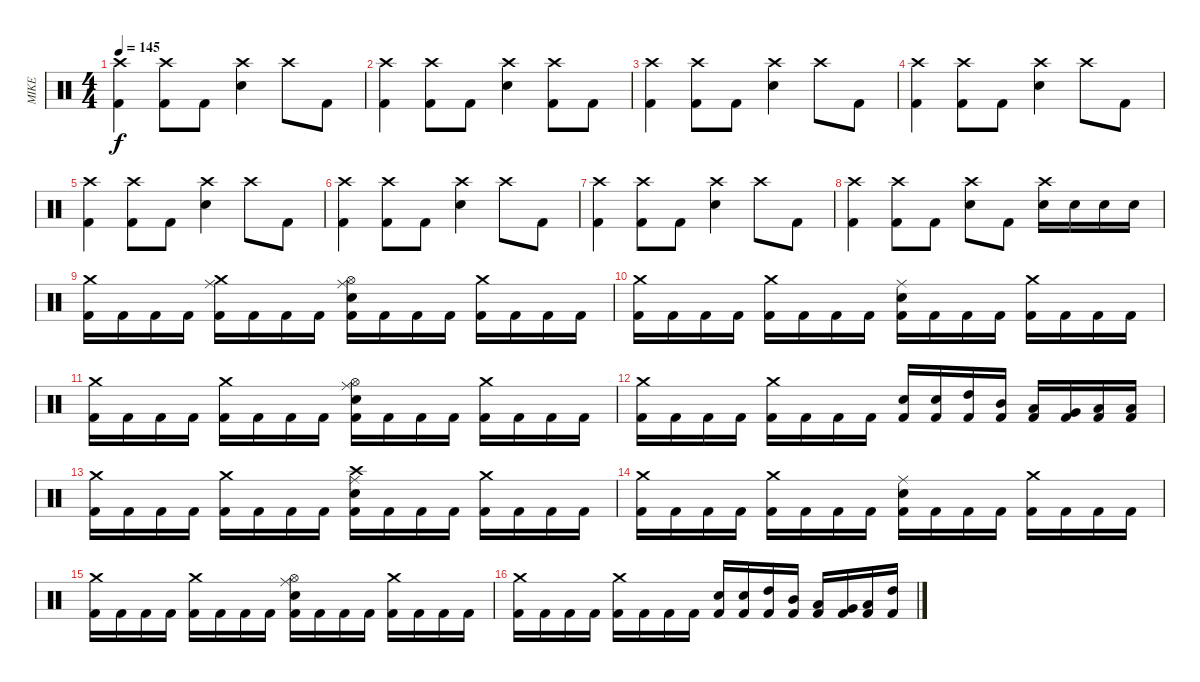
\track ("MIKE" "MIKE") {instrument percussion}
\staff {score}
\articulation defaults
\ts (4 4)
\tempo 145
\clef neutral
\ks c
("Crash high (hit)" "Kick (hit) 2").4{dy f} ("Crash high (hit)" "Kick (hit) 2").8 "Kick (hit) 2".8 ("Crash high (hit)" "Electric Snare (hit)").4 "Crash high (hit)".8 "Kick (hit) 2".8 |
("Crash high (hit)" "Kick (hit) 2").4 ("Crash high (hit)" "Kick (hit) 2").8 "Kick (hit) 2".8 ("Crash high (hit)" "Electric Snare (hit)").4 ("Crash high (hit)" "Kick (hit) 2").8 "Kick (hit) 2".8 |
("Crash high (hit)" "Kick (hit) 2").4 ("Crash high (hit)" "Kick (hit) 2").8 "Kick (hit) 2".8 ("Crash high (hit)" "Electric Snare (hit)").4 "Crash high (hit)".8 "Kick (hit) 2".8 |
("Crash high (hit)" "Kick (hit) 2").4 ("Crash high (hit)" "Kick (hit) 2").8 "Kick (hit) 2".8 ("Crash high (hit)" "Electric Snare (hit)").4 "Crash high (hit)".8 "Kick (hit) 2".8 |
("Crash high (hit)" "Kick (hit) 2").4 ("Crash high (hit)" "Kick (hit) 2").8 "Kick (hit) 2".8 ("Crash high (hit)" "Electric Snare (hit)").4 "Crash high (hit)".8 "Kick (hit) 2".8 |
("Crash high (hit)" "Kick (hit) 2").4 ("Crash high (hit)" "Kick (hit) 2").8 "Kick (hit) 2".8 ("Crash high (hit)" "Electric Snare (hit)").4 "Crash high (hit)".8 "Kick (hit) 2".8 |
("Crash high (hit)" "Kick (hit) 2").4 ("Crash high (hit)" "Kick (hit) 2").8 "Kick (hit) 2".8 ("Crash high (hit)" "Electric Snare (hit)").4 "Crash high (hit)".8 "Kick (hit) 2".8 |
("Crash high (hit)" "Kick (hit) 2").4 ("Crash high (hit)" "Kick (hit) 2").8 "Kick (hit) 2".8 ("Crash high (hit)" "Electric Snare (hit)").8 "Kick (hit) 2".8 ("Crash high (hit)" "Electric Snare (hit)").16 "Electric Snare (hit)".16 "Electric Snare (hit)".16 "Electric Snare (hit)".16 |
("Crash medium (hit)" "Kick (hit) 2").16 "Kick (hit) 2".16 "Kick (hit) 2".16 "Kick (hit) 2".16 ("Ride (middle)" "Crash medium (hit)" "Kick (hit) 2").16 "Kick (hit) 2".16 "Kick (hit) 2".16 "Kick (hit) 2".16 ("Hi-Hat (open)" "Ride (middle)" "Electric Snare (hit)" "Kick (hit) 2").16 "Kick (hit) 2".16 "Kick (hit) 2".16 "Kick (hit) 2".16 ("Crash medium (hit)" "Kick (hit) 2").16 "Kick (hit) 2".16 "Kick (hit) 2".16 "Kick (hit) 2".16 |
("Crash medium (hit)" "Kick (hit) 2").16 "Kick (hit) 2".16 "Kick (hit) 2".16 "Kick (hit) 2".16 ("Crash medium (hit)" "Kick (hit) 2").16 "Kick (hit) 2".16 "Kick (hit) 2".16 "Kick (hit) 2".16 ("Ride (middle)" "Electric Snare (hit)" "Kick (hit) 2").16 "Kick (hit) 2".16 "Kick (hit) 2".16 "Kick (hit) 2".16 ("Crash medium (hit)" "Kick (hit) 2").16 "Kick (hit) 2".16 "Kick (hit) 2".16 "Kick (hit) 2".16 |
("Crash medium (hit)" "Kick (hit) 2").16 "Kick (hit) 2".16 "Kick (hit) 2".16 "Kick (hit) 2".16 ("Crash medium (hit)" "Kick (hit) 2").16 "Kick (hit) 2".16 "Kick (hit) 2".16 "Kick (hit) 2".16 ("Ride (middle)" "Hi-Hat (open)" "Electric Snare (hit)" "Kick (hit) 2").16 "Kick (hit) 2".16 "Kick (hit) 2".16 "Kick (hit) 2".16 ("Crash medium (hit)" "Kick (hit) 2").16 "Kick (hit) 2".16 "Kick (hit) 2".16 "Kick (hit) 2".16 |
("Crash medium (hit)" "Kick (hit) 2").16 "Kick (hit) 2".16 "Kick (hit) 2".16 "Kick (hit) 2".16 ("Crash medium (hit)" "Kick (hit) 2").16 "Kick (hit) 2".16 "Kick (hit) 2".16 "Kick (hit) 2".16 ("Electric Snare (hit)" "Kick (hit) 2").16 ("Electric Snare (hit)" "Kick (hit) 2").16 ("High Tom (hit)" "Kick (hit) 2").16 ("Mid Tom (hit)" "Kick (hit) 2").16 ("Low Tom (hit)" "Kick (hit) 2").16 ("Very Low Tom (hit)" "Kick (hit) 2").16 ("Low Floor Tom (hit)" "Kick (hit) 2").16 ("Low Floor Tom (hit)" "Kick (hit) 2").16 |
("Crash medium (hit)" "Kick (hit) 2").16 "Kick (hit) 2".16 "Kick (hit) 2".16 "Kick (hit) 2".16 ("Crash medium (hit)" "Kick (hit) 2").16 "Kick (hit) 2".16 "Kick (hit) 2".16 "Kick (hit) 2".16 ("Ride (middle)" "Crash high (hit)" "Electric Snare (hit)" "Kick (hit) 2").16 "Kick (hit) 2".16 "Kick (hit) 2".16 "Kick (hit) 2".16 ("Crash medium (hit)" "Kick (hit) 2").16 "Kick (hit) 2".16 "Kick (hit) 2".16 "Kick (hit) 2".16 |
("Crash medium (hit)" "Kick (hit) 2").16 "Kick (hit) 2".16 "Kick (hit) 2".16 "Kick (hit) 2".16 ("Crash medium (hit)" "Kick (hit) 2").16 "Kick (hit) 2".16 "Kick (hit) 2".16 "Kick (hit) 2".16 ("Ride (middle)" "Electric Snare (hit)" "Kick (hit) 2").16 "Kick (hit) 2".16 "Kick (hit) 2".16 "Kick (hit) 2".16 ("Crash medium (hit)" "Kick (hit) 2").16 "Kick (hit) 2".16 "Kick (hit) 2".16 "Kick (hit) 2".16 |
("Crash medium (hit)" "Kick (hit) 2").16 "Kick (hit) 2".16 "Kick (hit) 2".16 "Kick (hit) 2".16 ("Crash medium (hit)" "Kick (hit) 2").16 "Kick (hit) 2".16 "Kick (hit) 2".16 "Kick (hit) 2".16 ("Ride (middle)" "Hi-Hat (open)" "Electric Snare (hit)" "Kick (hit) 2").16 "Kick (hit) 2".16 "Kick (hit) 2".16 "Kick (hit) 2".16 ("Crash medium (hit)" "Kick (hit) 2").16 "Kick (hit) 2".16 "Kick (hit) 2".16 "Kick (hit) 2".16 |
("Crash medium (hit)" "Kick (hit) 2").16 "Kick (hit) 2".16 "Kick (hit) 2".16 "Kick (hit) 2".16 ("Crash medium (hit)" "Kick (hit) 2").16 "Kick (hit) 2".16 "Kick (hit) 2".16 "Kick (hit) 2".16 ("Electric Snare (hit)" "Kick (hit) 2").16 ("Electric Snare (hit)" "Kick (hit) 2").16 ("High Tom (hit)" "Kick (hit) 2").16 ("Mid Tom (hit)" "Kick (hit) 2").16 ("Low Tom (hit)" "Kick (hit) 2").16 ("Very Low Tom (hit)" "Kick (hit) 2").16 ("Low Floor Tom (hit)" "Kick (hit) 2").16 ("High Tom (hit)" "Kick (hit) 2").16
